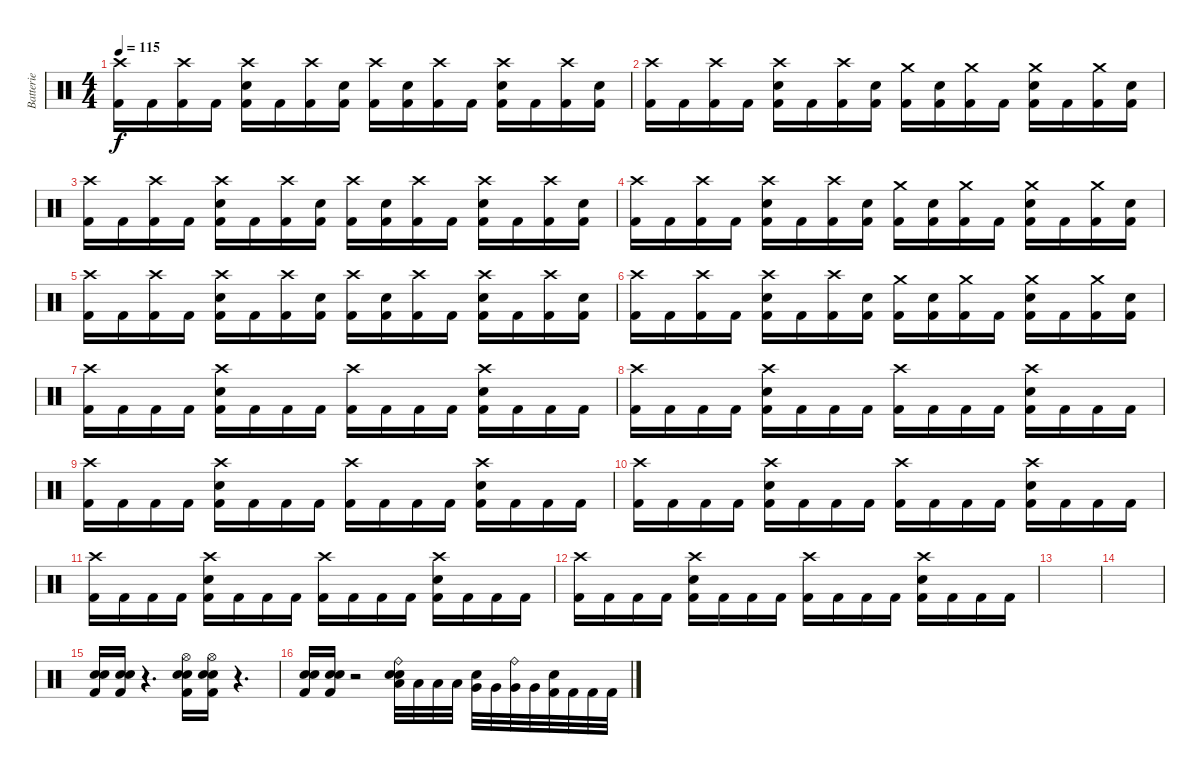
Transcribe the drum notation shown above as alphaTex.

\track ("Batterie" "Batterie") {instrument percussion}
\staff {score}
\articulation defaults
\ts (4 4)
\tempo 115
\clef neutral
\ks c
("Crash high (hit)" "Kick (hit) 2").16{dy f} "Kick (hit) 2".16 ("Crash high (hit)" "Kick (hit) 2").16 "Kick (hit) 2".16 ("Crash high (hit)" "Electric Snare (hit)" "Kick (hit) 2").16 "Kick (hit) 2".16 ("Crash high (hit)" "Kick (hit) 2").16 ("Electric Snare (hit)" "Kick (hit) 2").16 ("Crash high (hit)" "Kick (hit) 2").16 ("Electric Snare (hit)" "Kick (hit) 2").16 ("Crash high (hit)" "Kick (hit) 2").16 "Kick (hit) 2".16 ("Crash high (hit)" "Electric Snare (hit)" "Kick (hit) 2").16 "Kick (hit) 2".16 ("Crash high (hit)" "Kick (hit) 2").16 ("Electric Snare (hit)" "Kick (hit) 2").16 |
("Crash high (hit)" "Kick (hit) 2").16 "Kick (hit) 2".16 ("Crash high (hit)" "Kick (hit) 2").16 "Kick (hit) 2".16 ("Crash high (hit)" "Electric Snare (hit)" "Kick (hit) 2").16 "Kick (hit) 2".16 ("Crash high (hit)" "Kick (hit) 2").16 ("Electric Snare (hit)" "Kick (hit) 2").16 ("Crash medium (hit)" "Kick (hit) 2").16 ("Electric Snare (hit)" "Kick (hit) 2").16 ("Crash medium (hit)" "Kick (hit) 2").16 "Kick (hit) 2".16 ("Crash medium (hit)" "Electric Snare (hit)" "Kick (hit) 2").16 "Kick (hit) 2".16 ("Crash medium (hit)" "Kick (hit) 2").16 ("Electric Snare (hit)" "Kick (hit) 2").16 |
("Crash high (hit)" "Kick (hit) 2").16 "Kick (hit) 2".16 ("Crash high (hit)" "Kick (hit) 2").16 "Kick (hit) 2".16 ("Crash high (hit)" "Electric Snare (hit)" "Kick (hit) 2").16 "Kick (hit) 2".16 ("Crash high (hit)" "Kick (hit) 2").16 ("Electric Snare (hit)" "Kick (hit) 2").16 ("Crash high (hit)" "Kick (hit) 2").16 ("Electric Snare (hit)" "Kick (hit) 2").16 ("Crash high (hit)" "Kick (hit) 2").16 "Kick (hit) 2".16 ("Crash high (hit)" "Electric Snare (hit)" "Kick (hit) 2").16 "Kick (hit) 2".16 ("Crash high (hit)" "Kick (hit) 2").16 ("Electric Snare (hit)" "Kick (hit) 2").16 |
("Crash high (hit)" "Kick (hit) 2").16 "Kick (hit) 2".16 ("Crash high (hit)" "Kick (hit) 2").16 "Kick (hit) 2".16 ("Crash high (hit)" "Electric Snare (hit)" "Kick (hit) 2").16 "Kick (hit) 2".16 ("Crash high (hit)" "Kick (hit) 2").16 ("Electric Snare (hit)" "Kick (hit) 2").16 ("Crash medium (hit)" "Kick (hit) 2").16 ("Electric Snare (hit)" "Kick (hit) 2").16 ("Crash medium (hit)" "Kick (hit) 2").16 "Kick (hit) 2".16 ("Crash medium (hit)" "Electric Snare (hit)" "Kick (hit) 2").16 "Kick (hit) 2".16 ("Crash medium (hit)" "Kick (hit) 2").16 ("Electric Snare (hit)" "Kick (hit) 2").16 |
("Crash high (hit)" "Kick (hit) 2").16 "Kick (hit) 2".16 ("Crash high (hit)" "Kick (hit) 2").16 "Kick (hit) 2".16 ("Crash high (hit)" "Electric Snare (hit)" "Kick (hit) 2").16 "Kick (hit) 2".16 ("Crash high (hit)" "Kick (hit) 2").16 ("Electric Snare (hit)" "Kick (hit) 2").16 ("Crash high (hit)" "Kick (hit) 2").16 ("Electric Snare (hit)" "Kick (hit) 2").16 ("Crash high (hit)" "Kick (hit) 2").16 "Kick (hit) 2".16 ("Crash high (hit)" "Electric Snare (hit)" "Kick (hit) 2").16 "Kick (hit) 2".16 ("Crash high (hit)" "Kick (hit) 2").16 ("Electric Snare (hit)" "Kick (hit) 2").16 |
("Crash high (hit)" "Kick (hit) 2").16 "Kick (hit) 2".16 ("Crash high (hit)" "Kick (hit) 2").16 "Kick (hit) 2".16 ("Crash high (hit)" "Electric Snare (hit)" "Kick (hit) 2").16 "Kick (hit) 2".16 ("Crash high (hit)" "Kick (hit) 2").16 ("Electric Snare (hit)" "Kick (hit) 2").16 ("Crash medium (hit)" "Kick (hit) 2").16 ("Electric Snare (hit)" "Kick (hit) 2").16 ("Crash medium (hit)" "Kick (hit) 2").16 "Kick (hit) 2".16 ("Crash medium (hit)" "Electric Snare (hit)" "Kick (hit) 2").16 "Kick (hit) 2".16 ("Crash medium (hit)" "Kick (hit) 2").16 ("Electric Snare (hit)" "Kick (hit) 2").16 |
("Crash high (hit)" "Kick (hit) 2").16 "Kick (hit) 2".16 "Kick (hit) 2".16 "Kick (hit) 2".16 ("Crash high (hit)" "Electric Snare (hit)" "Kick (hit) 2").16 "Kick (hit) 2".16 "Kick (hit) 2".16 "Kick (hit) 2".16 ("Crash high (hit)" "Kick (hit) 2").16 "Kick (hit) 2".16 "Kick (hit) 2".16 "Kick (hit) 2".16 ("Crash high (hit)" "Electric Snare (hit)" "Kick (hit) 2").16 "Kick (hit) 2".16 "Kick (hit) 2".16 "Kick (hit) 2".16 |
("Crash high (hit)" "Kick (hit) 2").16 "Kick (hit) 2".16 "Kick (hit) 2".16 "Kick (hit) 2".16 ("Crash high (hit)" "Electric Snare (hit)" "Kick (hit) 2").16 "Kick (hit) 2".16 "Kick (hit) 2".16 "Kick (hit) 2".16 ("Crash high (hit)" "Kick (hit) 2").16 "Kick (hit) 2".16 "Kick (hit) 2".16 "Kick (hit) 2".16 ("Crash high (hit)" "Electric Snare (hit)" "Kick (hit) 2").16 "Kick (hit) 2".16 "Kick (hit) 2".16 "Kick (hit) 2".16 |
("Crash high (hit)" "Kick (hit) 2").16 "Kick (hit) 2".16 "Kick (hit) 2".16 "Kick (hit) 2".16 ("Crash high (hit)" "Electric Snare (hit)" "Kick (hit) 2").16 "Kick (hit) 2".16 "Kick (hit) 2".16 "Kick (hit) 2".16 ("Crash high (hit)" "Kick (hit) 2").16 "Kick (hit) 2".16 "Kick (hit) 2".16 "Kick (hit) 2".16 ("Crash high (hit)" "Electric Snare (hit)" "Kick (hit) 2").16 "Kick (hit) 2".16 "Kick (hit) 2".16 "Kick (hit) 2".16 |
("Crash high (hit)" "Kick (hit) 2").16 "Kick (hit) 2".16 "Kick (hit) 2".16 "Kick (hit) 2".16 ("Crash high (hit)" "Electric Snare (hit)" "Kick (hit) 2").16 "Kick (hit) 2".16 "Kick (hit) 2".16 "Kick (hit) 2".16 ("Crash high (hit)" "Kick (hit) 2").16 "Kick (hit) 2".16 "Kick (hit) 2".16 "Kick (hit) 2".16 ("Crash high (hit)" "Electric Snare (hit)" "Kick (hit) 2").16 "Kick (hit) 2".16 "Kick (hit) 2".16 "Kick (hit) 2".16 |
("Crash high (hit)" "Kick (hit) 2").16 "Kick (hit) 2".16 "Kick (hit) 2".16 "Kick (hit) 2".16 ("Crash high (hit)" "Electric Snare (hit)" "Kick (hit) 2").16 "Kick (hit) 2".16 "Kick (hit) 2".16 "Kick (hit) 2".16 ("Crash high (hit)" "Kick (hit) 2").16 "Kick (hit) 2".16 "Kick (hit) 2".16 "Kick (hit) 2".16 ("Crash high (hit)" "Electric Snare (hit)" "Kick (hit) 2").16 "Kick (hit) 2".16 "Kick (hit) 2".16 "Kick (hit) 2".16 |
("Crash high (hit)" "Kick (hit) 2").16 "Kick (hit) 2".16 "Kick (hit) 2".16 "Kick (hit) 2".16 ("Crash high (hit)" "Electric Snare (hit)" "Kick (hit) 2").16 "Kick (hit) 2".16 "Kick (hit) 2".16 "Kick (hit) 2".16 ("Crash high (hit)" "Kick (hit) 2").16 "Kick (hit) 2".16 "Kick (hit) 2".16 "Kick (hit) 2".16 ("Crash high (hit)" "Electric Snare (hit)" "Kick (hit) 2").16 "Kick (hit) 2".16 "Kick (hit) 2".16 "Kick (hit) 2".16 |
|
|
("Kick (hit) 2" "Electric Snare (hit)" "Electric Snare (hit)").16 ("Kick (hit) 2" "Electric Snare (hit)" "Electric Snare (hit)").16 r.4{d} ("Hi-Hat (open)" "Kick (hit) 2" "Electric Snare (hit)" "Electric Snare (hit)").16 ("Hi-Hat (open)" "Kick (hit) 2" "Electric Snare (hit)" "Electric Snare (hit)").16 r.4{d} |
("Kick (hit) 2" "Electric Snare (hit)" "Electric Snare (hit)").16 ("Kick (hit) 2" "Electric Snare (hit)" "Electric Snare (hit)").16 r.2 ("Ride (bell)" "Low Tom (hit)" "Electric Snare (hit)" "Electric Snare (hit)").32 "Low Tom (hit)".32 "Low Tom (hit)".32 "Low Tom (hit)".32 ("Very Low Tom (hit)" "Electric Snare (hit)").32 "Very Low Tom (hit)".32 ("Ride (bell)" "Very Low Tom (hit)").32 "Very Low Tom (hit)".32 ("Kick (hit) 2" "Electric Snare (hit)").32 "Kick (hit) 2".32 "Kick (hit) 2".32 "Kick (hit) 2".32
